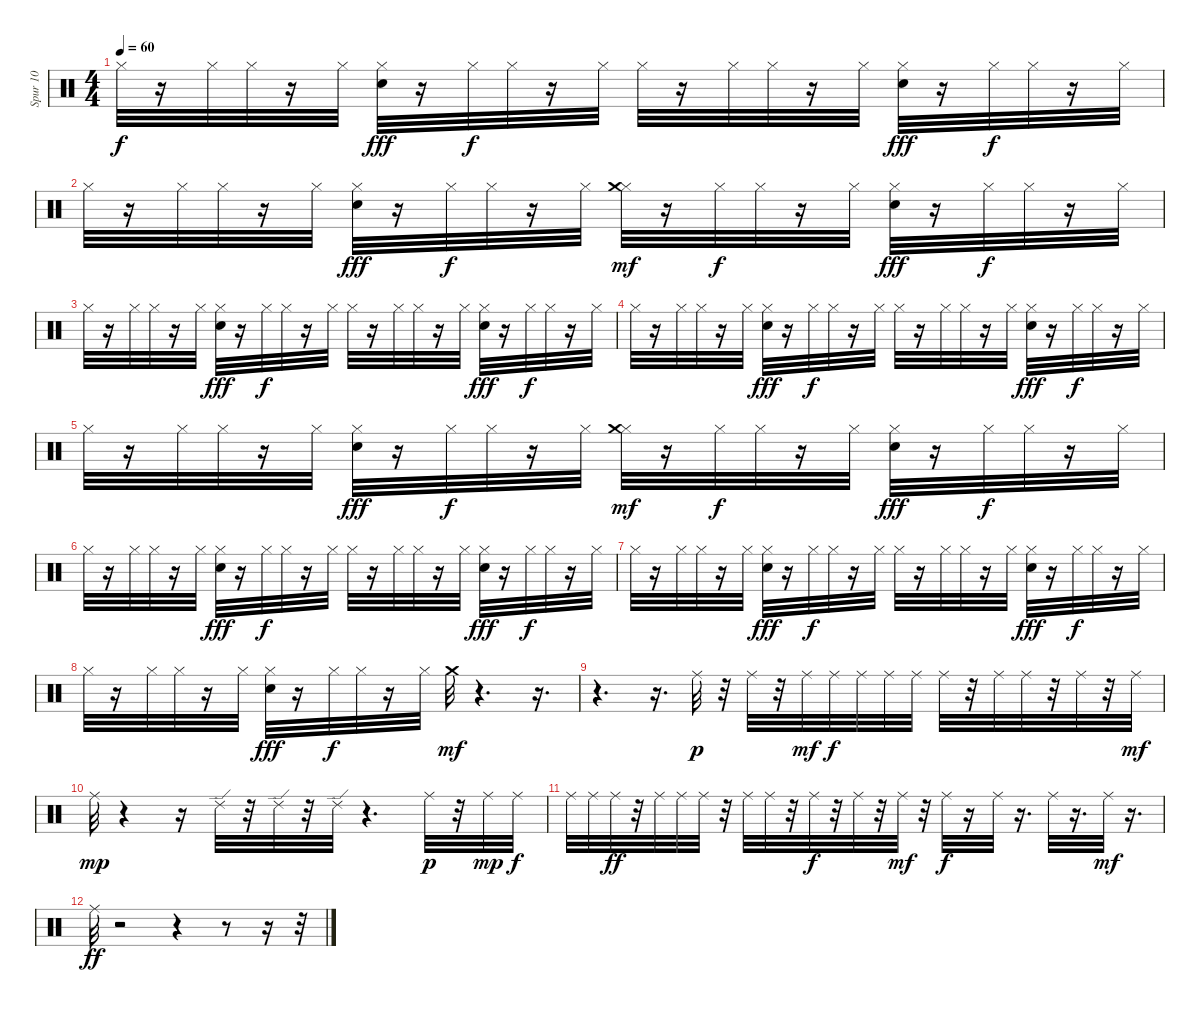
\track ("Spur 10" "Spur 10") {instrument percussion}
\staff {score}
\articulation defaults
\ts (4 4)
\tempo 60
\clef neutral
\ks c "Hi-Hat (closed)".32{dy f}
r.16 "Hi-Hat (closed)".32 "Hi-Hat (closed)".32 r.16 "Hi-Hat (closed)".32 ("Electric Snare (hit)" "Hi-Hat (closed)").32{dy fff} r.16 "Hi-Hat (closed)".32{dy f} "Hi-Hat (closed)".32 r.16 "Hi-Hat (closed)".32 "Hi-Hat (closed)".32 r.16 "Hi-Hat (closed)".32 "Hi-Hat (closed)".32 r.16 "Hi-Hat (closed)".32 ("Electric Snare (hit)" "Hi-Hat (closed)").32{dy fff} r.16 "Hi-Hat (closed)".32{dy f} "Hi-Hat (closed)".32 r.16 "Hi-Hat (closed)".32 |
"Hi-Hat (closed)".32 r.16 "Hi-Hat (closed)".32 "Hi-Hat (closed)".32 r.16 "Hi-Hat (closed)".32 ("Electric Snare (hit)" "Hi-Hat (closed)").32{dy fff} r.16 "Hi-Hat (closed)".32{dy f} "Hi-Hat (closed)".32 r.16 "Hi-Hat (closed)".32 ("Hi-Hat (closed)" "Crash medium (hit)").32{dy mf} r.16 "Hi-Hat (closed)".32{dy f} "Hi-Hat (closed)".32 r.16 "Hi-Hat (closed)".32 ("Electric Snare (hit)" "Hi-Hat (closed)").32{dy fff} r.16 "Hi-Hat (closed)".32{dy f} "Hi-Hat (closed)".32 r.16 "Hi-Hat (closed)".32 |
"Hi-Hat (closed)".32 r.16 "Hi-Hat (closed)".32 "Hi-Hat (closed)".32 r.16 "Hi-Hat (closed)".32 ("Electric Snare (hit)" "Hi-Hat (closed)").32{dy fff} r.16 "Hi-Hat (closed)".32{dy f} "Hi-Hat (closed)".32 r.16 "Hi-Hat (closed)".32 "Hi-Hat (closed)".32 r.16 "Hi-Hat (closed)".32 "Hi-Hat (closed)".32 r.16 "Hi-Hat (closed)".32 ("Electric Snare (hit)" "Hi-Hat (closed)").32{dy fff} r.16 "Hi-Hat (closed)".32{dy f} "Hi-Hat (closed)".32 r.16 "Hi-Hat (closed)".32 |
"Hi-Hat (closed)".32 r.16 "Hi-Hat (closed)".32 "Hi-Hat (closed)".32 r.16 "Hi-Hat (closed)".32 ("Electric Snare (hit)" "Hi-Hat (closed)").32{dy fff} r.16 "Hi-Hat (closed)".32{dy f} "Hi-Hat (closed)".32 r.16 "Hi-Hat (closed)".32 "Hi-Hat (closed)".32 r.16 "Hi-Hat (closed)".32 "Hi-Hat (closed)".32 r.16 "Hi-Hat (closed)".32 ("Electric Snare (hit)" "Hi-Hat (closed)").32{dy fff} r.16 "Hi-Hat (closed)".32{dy f} "Hi-Hat (closed)".32 r.16 "Hi-Hat (closed)".32 |
"Hi-Hat (closed)".32 r.16 "Hi-Hat (closed)".32 "Hi-Hat (closed)".32 r.16 "Hi-Hat (closed)".32 ("Electric Snare (hit)" "Hi-Hat (closed)").32{dy fff} r.16 "Hi-Hat (closed)".32{dy f} "Hi-Hat (closed)".32 r.16 "Hi-Hat (closed)".32 ("Hi-Hat (closed)" "Crash medium (hit)").32{dy mf} r.16 "Hi-Hat (closed)".32{dy f} "Hi-Hat (closed)".32 r.16 "Hi-Hat (closed)".32 ("Electric Snare (hit)" "Hi-Hat (closed)").32{dy fff} r.16 "Hi-Hat (closed)".32{dy f} "Hi-Hat (closed)".32 r.16 "Hi-Hat (closed)".32 |
"Hi-Hat (closed)".32 r.16 "Hi-Hat (closed)".32 "Hi-Hat (closed)".32 r.16 "Hi-Hat (closed)".32 ("Electric Snare (hit)" "Hi-Hat (closed)").32{dy fff} r.16 "Hi-Hat (closed)".32{dy f} "Hi-Hat (closed)".32 r.16 "Hi-Hat (closed)".32 "Hi-Hat (closed)".32 r.16 "Hi-Hat (closed)".32 "Hi-Hat (closed)".32 r.16 "Hi-Hat (closed)".32 ("Electric Snare (hit)" "Hi-Hat (closed)").32{dy fff} r.16 "Hi-Hat (closed)".32{dy f} "Hi-Hat (closed)".32 r.16 "Hi-Hat (closed)".32 |
"Hi-Hat (closed)".32 r.16 "Hi-Hat (closed)".32 "Hi-Hat (closed)".32 r.16 "Hi-Hat (closed)".32 ("Electric Snare (hit)" "Hi-Hat (closed)").32{dy fff} r.16 "Hi-Hat (closed)".32{dy f} "Hi-Hat (closed)".32 r.16 "Hi-Hat (closed)".32 "Hi-Hat (closed)".32 r.16 "Hi-Hat (closed)".32 "Hi-Hat (closed)".32 r.16 "Hi-Hat (closed)".32 ("Electric Snare (hit)" "Hi-Hat (closed)").32{dy fff} r.16 "Hi-Hat (closed)".32{dy f} "Hi-Hat (closed)".32 r.16 "Hi-Hat (closed)".32 |
"Hi-Hat (closed)".32 r.16 "Hi-Hat (closed)".32 "Hi-Hat (closed)".32 r.16 "Hi-Hat (closed)".32 ("Electric Snare (hit)" "Hi-Hat (closed)").32{dy fff} r.16 "Hi-Hat (closed)".32{dy f} "Hi-Hat (closed)".32 r.16 "Hi-Hat (closed)".32 "Crash medium (hit)".32{dy mf} r.4{d} r.16{d} |
r.4{d} r.16{d} "Ride (middle)".32{dy p} r.32 "Ride (middle)".32 r.32 "Ride (middle)".32{dy mf} "Ride (middle)".32{dy f} "Ride (middle)".32 "Ride (middle)".32 "Ride (middle)".32 "Ride (middle)".32 r.32 "Ride (middle)".32 "Ride (middle)".32 r.32 "Ride (middle)".32 r.32 "Ride (middle)".32{dy mf} |
"Ride (middle)".32{dy mp} r.4 r.16 "Ride (edge) 2".32 r.32 "Ride (edge) 2".32 r.32 "Ride (edge) 2".32 r.4{d} "Ride (middle)".32{dy p} r.32 "Ride (middle)".32{dy mp} "Ride (middle)".32{dy f} |
"Ride (middle)".32 "Ride (middle)".32 "Ride (middle)".32{dy ff} r.32 "Ride (middle)".32 "Ride (middle)".32 "Ride (middle)".32 r.32 "Ride (middle)".32 "Ride (middle)".32 r.32 "Ride (middle)".32{dy f} r.32 "Ride (middle)".32 r.32 "Ride (middle)".32{dy mf} r.32 "Ride (middle)".32{dy f} r.16 "Ride (middle)".32 r.16{d} "Ride (middle)".32 r.16{d} "Ride (middle)".32{dy mf} r.16{d} |
"Ride (middle)".32{dy ff} r.2 r.4 r.8 r.16 r.32
